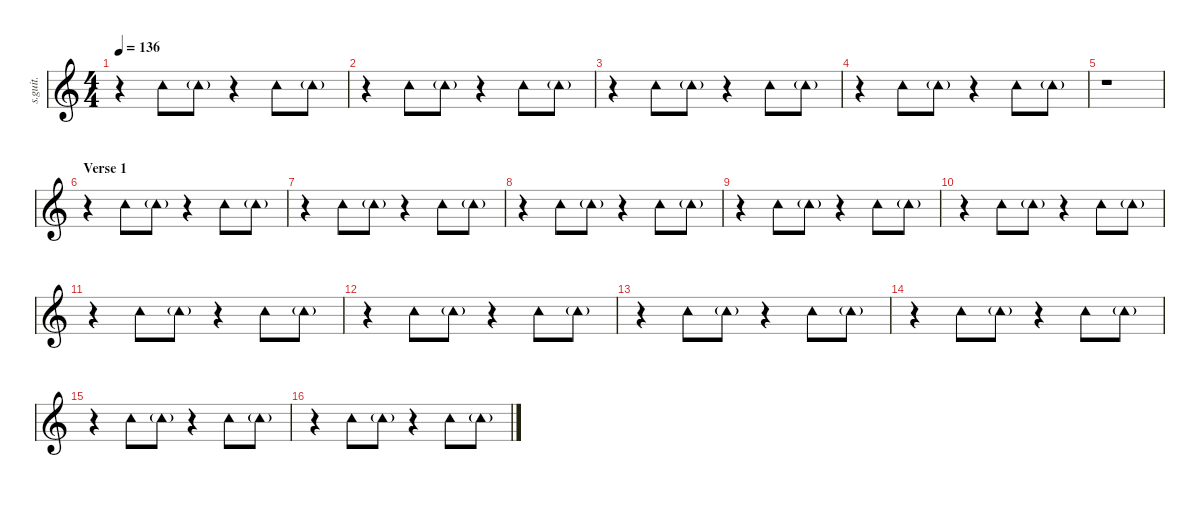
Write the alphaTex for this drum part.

\defaultSystemsLayout 4
\hideDynamics
\bracketExtendMode nobrackets
\track ("Tambourine" "s.guit.") {instrument percussion}
\staff {score}
\articulation defaults
\ts (4 4)
\tempo 136
\clef g2
\ks c
r.4{dy mf} "Tambourine (hit)".8{lyrics (0 "") lyrics (1 "") lyrics (2 "") lyrics (3 "") lyrics (4 "")} "Tambourine (hit)"{g}.8{lyrics (0 "") lyrics (1 "") lyrics (2 "") lyrics (3 "") lyrics (4 "")} r.4 "Tambourine (hit)".8{lyrics (0 "") lyrics (1 "") lyrics (2 "") lyrics (3 "") lyrics (4 "")} "Tambourine (hit)"{g}.8{lyrics (0 "") lyrics (1 "") lyrics (2 "") lyrics (3 "") lyrics (4 "")} |
r.4 "Tambourine (hit)".8{lyrics (0 "") lyrics (1 "") lyrics (2 "") lyrics (3 "") lyrics (4 "")} "Tambourine (hit)"{g}.8{lyrics (0 "") lyrics (1 "") lyrics (2 "") lyrics (3 "") lyrics (4 "")} r.4 "Tambourine (hit)".8{lyrics (0 "") lyrics (1 "") lyrics (2 "") lyrics (3 "") lyrics (4 "")} "Tambourine (hit)"{g}.8{lyrics (0 "") lyrics (1 "") lyrics (2 "") lyrics (3 "") lyrics (4 "")} |
r.4 "Tambourine (hit)".8{lyrics (0 "") lyrics (1 "") lyrics (2 "") lyrics (3 "") lyrics (4 "")} "Tambourine (hit)"{g}.8{lyrics (0 "") lyrics (1 "") lyrics (2 "") lyrics (3 "") lyrics (4 "")} r.4 "Tambourine (hit)".8{lyrics (0 "") lyrics (1 "") lyrics (2 "") lyrics (3 "") lyrics (4 "")} "Tambourine (hit)"{g}.8{lyrics (0 "") lyrics (1 "") lyrics (2 "") lyrics (3 "") lyrics (4 "")} |
r.4 "Tambourine (hit)".8{lyrics (0 "") lyrics (1 "") lyrics (2 "") lyrics (3 "") lyrics (4 "")} "Tambourine (hit)"{g}.8{lyrics (0 "") lyrics (1 "") lyrics (2 "") lyrics (3 "") lyrics (4 "")} r.4 "Tambourine (hit)".8{lyrics (0 "") lyrics (1 "") lyrics (2 "") lyrics (3 "") lyrics (4 "")} "Tambourine (hit)"{g}.8{lyrics (0 "") lyrics (1 "") lyrics (2 "") lyrics (3 "") lyrics (4 "")} |
r.1 |
\section ("" "Verse 1")
r.4 "Tambourine (hit)".8{lyrics (0 "") lyrics (1 "") lyrics (2 "") lyrics (3 "") lyrics (4 "")} "Tambourine (hit)"{g}.8{lyrics (0 "") lyrics (1 "") lyrics (2 "") lyrics (3 "") lyrics (4 "")} r.4 "Tambourine (hit)".8{lyrics (0 "") lyrics (1 "") lyrics (2 "") lyrics (3 "") lyrics (4 "")} "Tambourine (hit)"{g}.8{lyrics (0 "") lyrics (1 "") lyrics (2 "") lyrics (3 "") lyrics (4 "")} |
r.4 "Tambourine (hit)".8{lyrics (0 "") lyrics (1 "") lyrics (2 "") lyrics (3 "") lyrics (4 "")} "Tambourine (hit)"{g}.8{lyrics (0 "") lyrics (1 "") lyrics (2 "") lyrics (3 "") lyrics (4 "")} r.4 "Tambourine (hit)".8{lyrics (0 "") lyrics (1 "") lyrics (2 "") lyrics (3 "") lyrics (4 "")} "Tambourine (hit)"{g}.8{lyrics (0 "") lyrics (1 "") lyrics (2 "") lyrics (3 "") lyrics (4 "")} |
r.4 "Tambourine (hit)".8{lyrics (0 "") lyrics (1 "") lyrics (2 "") lyrics (3 "") lyrics (4 "")} "Tambourine (hit)"{g}.8{lyrics (0 "") lyrics (1 "") lyrics (2 "") lyrics (3 "") lyrics (4 "")} r.4 "Tambourine (hit)".8{lyrics (0 "") lyrics (1 "") lyrics (2 "") lyrics (3 "") lyrics (4 "")} "Tambourine (hit)"{g}.8{lyrics (0 "") lyrics (1 "") lyrics (2 "") lyrics (3 "") lyrics (4 "")} |
r.4 "Tambourine (hit)".8{lyrics (0 "") lyrics (1 "") lyrics (2 "") lyrics (3 "") lyrics (4 "")} "Tambourine (hit)"{g}.8{lyrics (0 "") lyrics (1 "") lyrics (2 "") lyrics (3 "") lyrics (4 "")} r.4 "Tambourine (hit)".8{lyrics (0 "") lyrics (1 "") lyrics (2 "") lyrics (3 "") lyrics (4 "")} "Tambourine (hit)"{g}.8{lyrics (0 "") lyrics (1 "") lyrics (2 "") lyrics (3 "") lyrics (4 "")} |
r.4 "Tambourine (hit)".8{lyrics (0 "") lyrics (1 "") lyrics (2 "") lyrics (3 "") lyrics (4 "")} "Tambourine (hit)"{g}.8{lyrics (0 "") lyrics (1 "") lyrics (2 "") lyrics (3 "") lyrics (4 "")} r.4 "Tambourine (hit)".8{lyrics (0 "") lyrics (1 "") lyrics (2 "") lyrics (3 "") lyrics (4 "")} "Tambourine (hit)"{g}.8{lyrics (0 "") lyrics (1 "") lyrics (2 "") lyrics (3 "") lyrics (4 "")} |
r.4 "Tambourine (hit)".8{lyrics (0 "") lyrics (1 "") lyrics (2 "") lyrics (3 "") lyrics (4 "")} "Tambourine (hit)"{g}.8{lyrics (0 "") lyrics (1 "") lyrics (2 "") lyrics (3 "") lyrics (4 "")} r.4 "Tambourine (hit)".8{lyrics (0 "") lyrics (1 "") lyrics (2 "") lyrics (3 "") lyrics (4 "")} "Tambourine (hit)"{g}.8{lyrics (0 "") lyrics (1 "") lyrics (2 "") lyrics (3 "") lyrics (4 "")} |
r.4 "Tambourine (hit)".8{lyrics (0 "") lyrics (1 "") lyrics (2 "") lyrics (3 "") lyrics (4 "")} "Tambourine (hit)"{g}.8{lyrics (0 "") lyrics (1 "") lyrics (2 "") lyrics (3 "") lyrics (4 "")} r.4 "Tambourine (hit)".8{lyrics (0 "") lyrics (1 "") lyrics (2 "") lyrics (3 "") lyrics (4 "")} "Tambourine (hit)"{g}.8{lyrics (0 "") lyrics (1 "") lyrics (2 "") lyrics (3 "") lyrics (4 "")} |
r.4 "Tambourine (hit)".8{lyrics (0 "") lyrics (1 "") lyrics (2 "") lyrics (3 "") lyrics (4 "")} "Tambourine (hit)"{g}.8{lyrics (0 "") lyrics (1 "") lyrics (2 "") lyrics (3 "") lyrics (4 "")} r.4 "Tambourine (hit)".8{lyrics (0 "") lyrics (1 "") lyrics (2 "") lyrics (3 "") lyrics (4 "")} "Tambourine (hit)"{g}.8{lyrics (0 "") lyrics (1 "") lyrics (2 "") lyrics (3 "") lyrics (4 "")} |
r.4 "Tambourine (hit)".8{lyrics (0 "") lyrics (1 "") lyrics (2 "") lyrics (3 "") lyrics (4 "")} "Tambourine (hit)"{g}.8{lyrics (0 "") lyrics (1 "") lyrics (2 "") lyrics (3 "") lyrics (4 "")} r.4 "Tambourine (hit)".8{lyrics (0 "") lyrics (1 "") lyrics (2 "") lyrics (3 "") lyrics (4 "")} "Tambourine (hit)"{g}.8{lyrics (0 "") lyrics (1 "") lyrics (2 "") lyrics (3 "") lyrics (4 "")} |
r.4 "Tambourine (hit)".8{lyrics (0 "") lyrics (1 "") lyrics (2 "") lyrics (3 "") lyrics (4 "")} "Tambourine (hit)"{g}.8{lyrics (0 "") lyrics (1 "") lyrics (2 "") lyrics (3 "") lyrics (4 "")} r.4 "Tambourine (hit)".8{lyrics (0 "") lyrics (1 "") lyrics (2 "") lyrics (3 "") lyrics (4 "")} "Tambourine (hit)"{g}.8{lyrics (0 "") lyrics (1 "") lyrics (2 "") lyrics (3 "") lyrics (4 "")} |
r.4 "Tambourine (hit)".8{lyrics (0 "") lyrics (1 "") lyrics (2 "") lyrics (3 "") lyrics (4 "")} "Tambourine (hit)"{g}.8{lyrics (0 "") lyrics (1 "") lyrics (2 "") lyrics (3 "") lyrics (4 "")} r.4 "Tambourine (hit)".8{lyrics (0 "") lyrics (1 "") lyrics (2 "") lyrics (3 "") lyrics (4 "")} "Tambourine (hit)"{g}.8{lyrics (0 "") lyrics (1 "") lyrics (2 "") lyrics (3 "") lyrics (4 "")}
